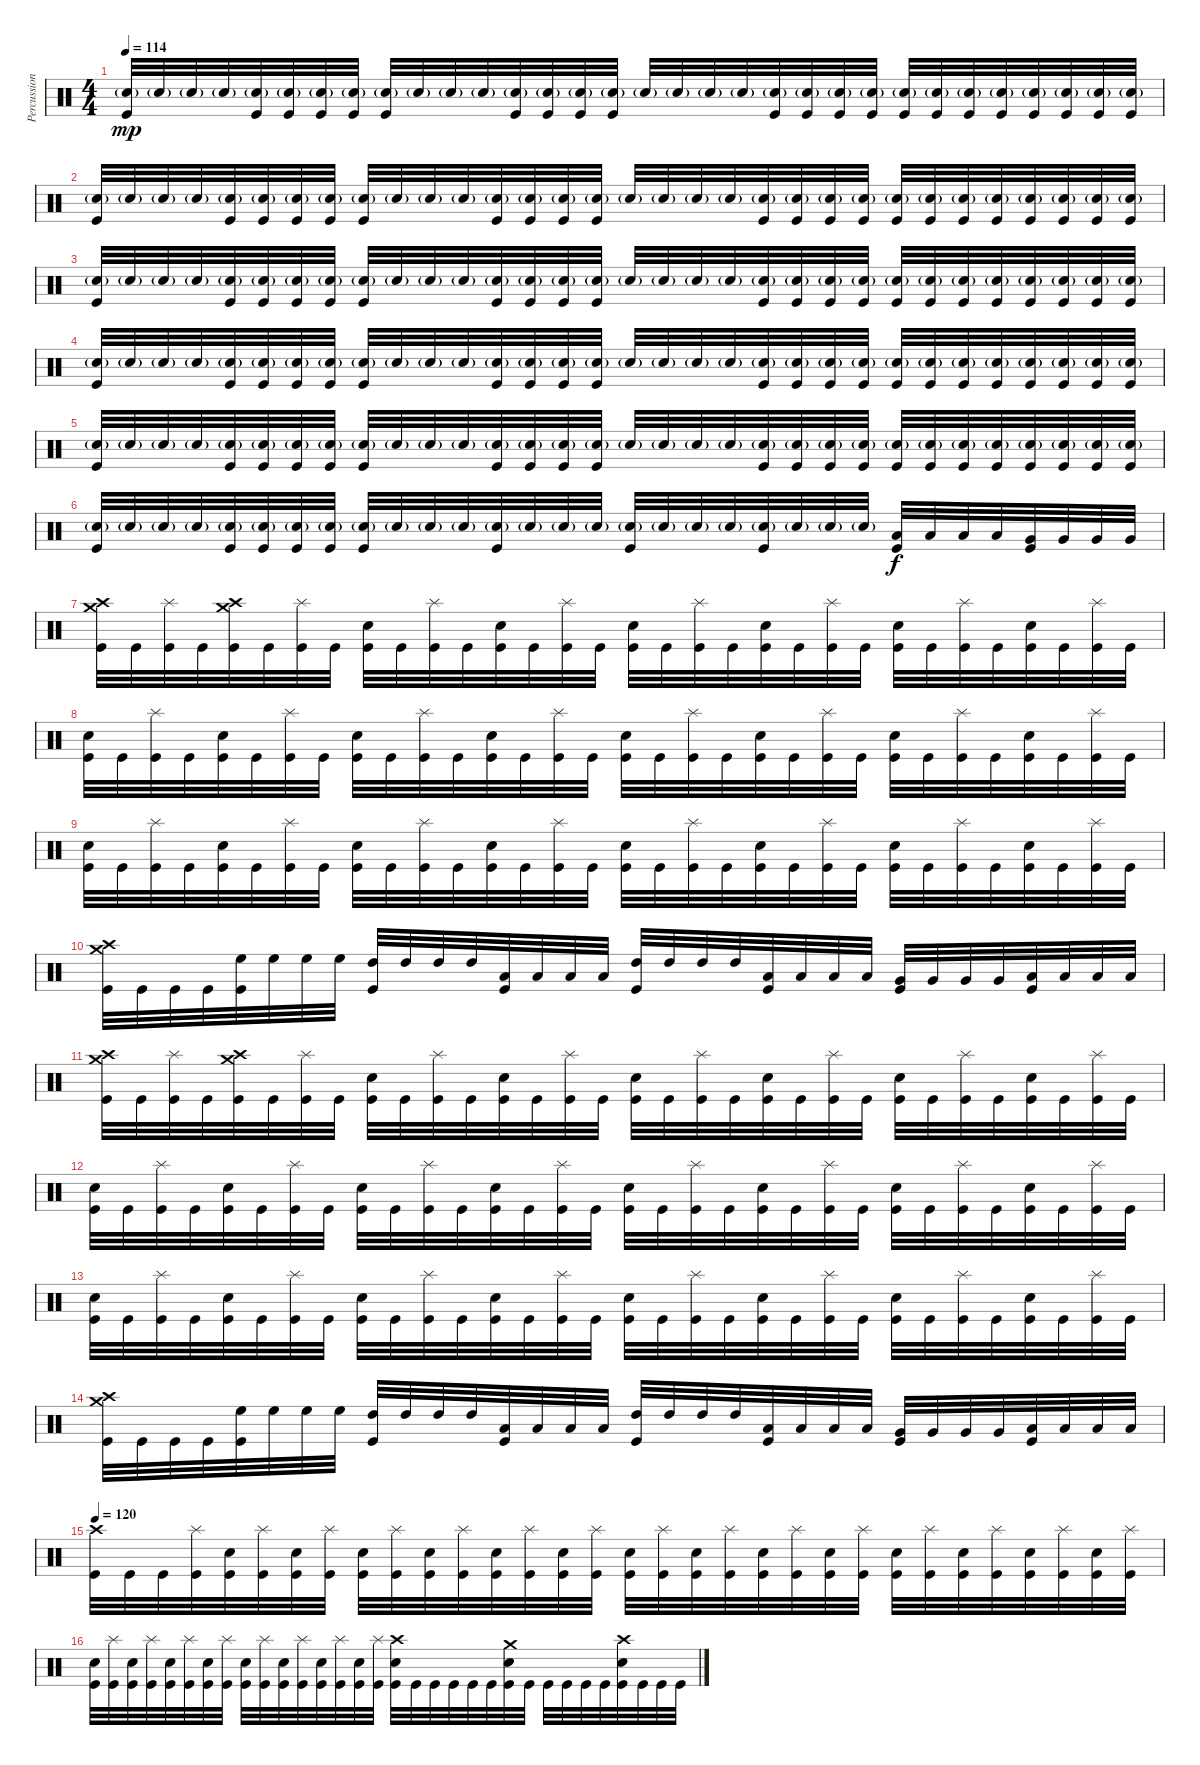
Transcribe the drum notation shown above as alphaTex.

\track ("Percussion" "Percussion") {instrument percussion}
\staff {score}
\articulation defaults
\ts (4 4)
\tempo 114
\clef neutral
\ks c
("Electric Snare (hit)"{g} "Kick (hit)").32{dy mp} "Electric Snare (hit)"{g}.32 "Electric Snare (hit)"{g}.32 "Electric Snare (hit)"{g}.32 ("Electric Snare (hit)"{g} "Kick (hit)").32 ("Electric Snare (hit)"{g} "Kick (hit)").32 ("Electric Snare (hit)"{g} "Kick (hit)").32 ("Electric Snare (hit)"{g} "Kick (hit)").32 ("Electric Snare (hit)"{g} "Kick (hit)").32 "Electric Snare (hit)"{g}.32 "Electric Snare (hit)"{g}.32 "Electric Snare (hit)"{g}.32 ("Electric Snare (hit)"{g} "Kick (hit)").32 ("Electric Snare (hit)"{g} "Kick (hit)").32 ("Electric Snare (hit)"{g} "Kick (hit)").32 ("Electric Snare (hit)"{g} "Kick (hit)").32 "Electric Snare (hit)"{g}.32 "Electric Snare (hit)"{g}.32 "Electric Snare (hit)"{g}.32 "Electric Snare (hit)"{g}.32 ("Electric Snare (hit)"{g} "Kick (hit)").32 ("Electric Snare (hit)"{g} "Kick (hit)").32 ("Electric Snare (hit)"{g} "Kick (hit)").32 ("Electric Snare (hit)"{g} "Kick (hit)").32 ("Electric Snare (hit)"{g} "Kick (hit)").32 ("Electric Snare (hit)"{g} "Kick (hit)").32 ("Electric Snare (hit)"{g} "Kick (hit)").32 ("Electric Snare (hit)"{g} "Kick (hit)").32 ("Electric Snare (hit)"{g} "Kick (hit)").32 ("Electric Snare (hit)"{g} "Kick (hit)").32 ("Electric Snare (hit)"{g} "Kick (hit)").32 ("Electric Snare (hit)"{g} "Kick (hit)").32 |
("Electric Snare (hit)"{g} "Kick (hit)").32 "Electric Snare (hit)"{g}.32 "Electric Snare (hit)"{g}.32 "Electric Snare (hit)"{g}.32 ("Electric Snare (hit)"{g} "Kick (hit)").32 ("Electric Snare (hit)"{g} "Kick (hit)").32 ("Electric Snare (hit)"{g} "Kick (hit)").32 ("Electric Snare (hit)"{g} "Kick (hit)").32 ("Electric Snare (hit)"{g} "Kick (hit)").32 "Electric Snare (hit)"{g}.32 "Electric Snare (hit)"{g}.32 "Electric Snare (hit)"{g}.32 ("Electric Snare (hit)"{g} "Kick (hit)").32 ("Electric Snare (hit)"{g} "Kick (hit)").32 ("Electric Snare (hit)"{g} "Kick (hit)").32 ("Electric Snare (hit)"{g} "Kick (hit)").32 "Electric Snare (hit)"{g}.32 "Electric Snare (hit)"{g}.32 "Electric Snare (hit)"{g}.32 "Electric Snare (hit)"{g}.32 ("Electric Snare (hit)"{g} "Kick (hit)").32 ("Electric Snare (hit)"{g} "Kick (hit)").32 ("Electric Snare (hit)"{g} "Kick (hit)").32 ("Electric Snare (hit)"{g} "Kick (hit)").32 ("Electric Snare (hit)"{g} "Kick (hit)").32 ("Electric Snare (hit)"{g} "Kick (hit)").32 ("Electric Snare (hit)"{g} "Kick (hit)").32 ("Electric Snare (hit)"{g} "Kick (hit)").32 ("Electric Snare (hit)"{g} "Kick (hit)").32 ("Electric Snare (hit)"{g} "Kick (hit)").32 ("Electric Snare (hit)"{g} "Kick (hit)").32 ("Electric Snare (hit)"{g} "Kick (hit)").32 |
("Electric Snare (hit)"{g} "Kick (hit)").32 "Electric Snare (hit)"{g}.32 "Electric Snare (hit)"{g}.32 "Electric Snare (hit)"{g}.32 ("Electric Snare (hit)"{g} "Kick (hit)").32 ("Electric Snare (hit)"{g} "Kick (hit)").32 ("Electric Snare (hit)"{g} "Kick (hit)").32 ("Electric Snare (hit)"{g} "Kick (hit)").32 ("Electric Snare (hit)"{g} "Kick (hit)").32 "Electric Snare (hit)"{g}.32 "Electric Snare (hit)"{g}.32 "Electric Snare (hit)"{g}.32 ("Electric Snare (hit)"{g} "Kick (hit)").32 ("Electric Snare (hit)"{g} "Kick (hit)").32 ("Electric Snare (hit)"{g} "Kick (hit)").32 ("Electric Snare (hit)"{g} "Kick (hit)").32 "Electric Snare (hit)"{g}.32 "Electric Snare (hit)"{g}.32 "Electric Snare (hit)"{g}.32 "Electric Snare (hit)"{g}.32 ("Electric Snare (hit)"{g} "Kick (hit)").32 ("Electric Snare (hit)"{g} "Kick (hit)").32 ("Electric Snare (hit)"{g} "Kick (hit)").32 ("Electric Snare (hit)"{g} "Kick (hit)").32 ("Electric Snare (hit)"{g} "Kick (hit)").32 ("Electric Snare (hit)"{g} "Kick (hit)").32 ("Electric Snare (hit)"{g} "Kick (hit)").32 ("Electric Snare (hit)"{g} "Kick (hit)").32 ("Electric Snare (hit)"{g} "Kick (hit)").32 ("Electric Snare (hit)"{g} "Kick (hit)").32 ("Electric Snare (hit)"{g} "Kick (hit)").32 ("Electric Snare (hit)"{g} "Kick (hit)").32 |
("Electric Snare (hit)"{g} "Kick (hit)").32 "Electric Snare (hit)"{g}.32 "Electric Snare (hit)"{g}.32 "Electric Snare (hit)"{g}.32 ("Electric Snare (hit)"{g} "Kick (hit)").32 ("Electric Snare (hit)"{g} "Kick (hit)").32 ("Electric Snare (hit)"{g} "Kick (hit)").32 ("Electric Snare (hit)"{g} "Kick (hit)").32 ("Electric Snare (hit)"{g} "Kick (hit)").32 "Electric Snare (hit)"{g}.32 "Electric Snare (hit)"{g}.32 "Electric Snare (hit)"{g}.32 ("Electric Snare (hit)"{g} "Kick (hit)").32 ("Electric Snare (hit)"{g} "Kick (hit)").32 ("Electric Snare (hit)"{g} "Kick (hit)").32 ("Electric Snare (hit)"{g} "Kick (hit)").32 "Electric Snare (hit)"{g}.32 "Electric Snare (hit)"{g}.32 "Electric Snare (hit)"{g}.32 "Electric Snare (hit)"{g}.32 ("Electric Snare (hit)"{g} "Kick (hit)").32 ("Electric Snare (hit)"{g} "Kick (hit)").32 ("Electric Snare (hit)"{g} "Kick (hit)").32 ("Electric Snare (hit)"{g} "Kick (hit)").32 ("Electric Snare (hit)"{g} "Kick (hit)").32 ("Electric Snare (hit)"{g} "Kick (hit)").32 ("Electric Snare (hit)"{g} "Kick (hit)").32 ("Electric Snare (hit)"{g} "Kick (hit)").32 ("Electric Snare (hit)"{g} "Kick (hit)").32 ("Electric Snare (hit)"{g} "Kick (hit)").32 ("Electric Snare (hit)"{g} "Kick (hit)").32 ("Electric Snare (hit)"{g} "Kick (hit)").32 |
("Electric Snare (hit)"{g} "Kick (hit)").32 "Electric Snare (hit)"{g}.32 "Electric Snare (hit)"{g}.32 "Electric Snare (hit)"{g}.32 ("Electric Snare (hit)"{g} "Kick (hit)").32 ("Electric Snare (hit)"{g} "Kick (hit)").32 ("Electric Snare (hit)"{g} "Kick (hit)").32 ("Electric Snare (hit)"{g} "Kick (hit)").32 ("Electric Snare (hit)"{g} "Kick (hit)").32 "Electric Snare (hit)"{g}.32 "Electric Snare (hit)"{g}.32 "Electric Snare (hit)"{g}.32 ("Electric Snare (hit)"{g} "Kick (hit)").32 ("Electric Snare (hit)"{g} "Kick (hit)").32 ("Electric Snare (hit)"{g} "Kick (hit)").32 ("Electric Snare (hit)"{g} "Kick (hit)").32 "Electric Snare (hit)"{g}.32 "Electric Snare (hit)"{g}.32 "Electric Snare (hit)"{g}.32 "Electric Snare (hit)"{g}.32 ("Electric Snare (hit)"{g} "Kick (hit)").32 ("Electric Snare (hit)"{g} "Kick (hit)").32 ("Electric Snare (hit)"{g} "Kick (hit)").32 ("Electric Snare (hit)"{g} "Kick (hit)").32 ("Electric Snare (hit)"{g} "Kick (hit)").32 ("Electric Snare (hit)"{g} "Kick (hit)").32 ("Electric Snare (hit)"{g} "Kick (hit)").32 ("Electric Snare (hit)"{g} "Kick (hit)").32 ("Electric Snare (hit)"{g} "Kick (hit)").32 ("Electric Snare (hit)"{g} "Kick (hit)").32 ("Electric Snare (hit)"{g} "Kick (hit)").32 ("Electric Snare (hit)"{g} "Kick (hit)").32 |
("Electric Snare (hit)"{g} "Kick (hit)").32 "Electric Snare (hit)"{g}.32 "Electric Snare (hit)"{g}.32 "Electric Snare (hit)"{g}.32 ("Electric Snare (hit)"{g} "Kick (hit)").32 ("Electric Snare (hit)"{g} "Kick (hit)").32 ("Electric Snare (hit)"{g} "Kick (hit)").32 ("Electric Snare (hit)"{g} "Kick (hit)").32 ("Electric Snare (hit)"{g} "Kick (hit)").32 "Electric Snare (hit)"{g}.32 "Electric Snare (hit)"{g}.32 "Electric Snare (hit)"{g}.32 ("Electric Snare (hit)"{g} "Kick (hit)").32 "Electric Snare (hit)"{g}.32 "Electric Snare (hit)"{g}.32 "Electric Snare (hit)"{g}.32 ("Electric Snare (hit)"{g} "Kick (hit)").32 "Electric Snare (hit)"{g}.32 "Electric Snare (hit)"{g}.32 "Electric Snare (hit)"{g}.32 ("Electric Snare (hit)"{g} "Kick (hit)").32 "Electric Snare (hit)"{g}.32 "Electric Snare (hit)"{g}.32 "Electric Snare (hit)"{g}.32 ("Low Tom (hit)" "Kick (hit)").32{dy f} "Low Tom (hit)".32 "Low Tom (hit)".32 "Low Tom (hit)".32 ("Very Low Tom (hit)" "Kick (hit)").32 "Very Low Tom (hit)".32 "Very Low Tom (hit)".32 "Very Low Tom (hit)".32 |
("Crash high (hit)" "Crash medium (hit)" "Kick (hit)").32 "Kick (hit)".32 ("Splash (hit)" "Kick (hit)").32 "Kick (hit)".32 ("Crash high (hit)" "Crash medium (hit)" "Kick (hit)").32 "Kick (hit)".32 ("Splash (hit)" "Kick (hit)").32 "Kick (hit)".32 ("Electric Snare (hit)" "Kick (hit)").32 "Kick (hit)".32 ("Splash (hit)" "Kick (hit)").32 "Kick (hit)".32 ("Electric Snare (hit)" "Kick (hit)").32 "Kick (hit)".32 ("Splash (hit)" "Kick (hit)").32 "Kick (hit)".32 ("Electric Snare (hit)" "Kick (hit)").32 "Kick (hit)".32 ("Splash (hit)" "Kick (hit)").32 "Kick (hit)".32 ("Electric Snare (hit)" "Kick (hit)").32 "Kick (hit)".32 ("Splash (hit)" "Kick (hit)").32 "Kick (hit)".32 ("Electric Snare (hit)" "Kick (hit)").32 "Kick (hit)".32 ("Splash (hit)" "Kick (hit)").32 "Kick (hit)".32 ("Electric Snare (hit)" "Kick (hit)").32 "Kick (hit)".32 ("Splash (hit)" "Kick (hit)").32 "Kick (hit)".32 |
("Electric Snare (hit)" "Kick (hit)").32 "Kick (hit)".32 ("Splash (hit)" "Kick (hit)").32 "Kick (hit)".32 ("Electric Snare (hit)" "Kick (hit)").32 "Kick (hit)".32 ("Splash (hit)" "Kick (hit)").32 "Kick (hit)".32 ("Electric Snare (hit)" "Kick (hit)").32 "Kick (hit)".32 ("Splash (hit)" "Kick (hit)").32 "Kick (hit)".32 ("Electric Snare (hit)" "Kick (hit)").32 "Kick (hit)".32 ("Splash (hit)" "Kick (hit)").32 "Kick (hit)".32 ("Electric Snare (hit)" "Kick (hit)").32 "Kick (hit)".32 ("Splash (hit)" "Kick (hit)").32 "Kick (hit)".32 ("Electric Snare (hit)" "Kick (hit)").32 "Kick (hit)".32 ("Splash (hit)" "Kick (hit)").32 "Kick (hit)".32 ("Electric Snare (hit)" "Kick (hit)").32 "Kick (hit)".32 ("Splash (hit)" "Kick (hit)").32 "Kick (hit)".32 ("Electric Snare (hit)" "Kick (hit)").32 "Kick (hit)".32 ("Splash (hit)" "Kick (hit)").32 "Kick (hit)".32 |
("Electric Snare (hit)" "Kick (hit)").32 "Kick (hit)".32 ("Splash (hit)" "Kick (hit)").32 "Kick (hit)".32 ("Electric Snare (hit)" "Kick (hit)").32 "Kick (hit)".32 ("Splash (hit)" "Kick (hit)").32 "Kick (hit)".32 ("Electric Snare (hit)" "Kick (hit)").32 "Kick (hit)".32 ("Splash (hit)" "Kick (hit)").32 "Kick (hit)".32 ("Electric Snare (hit)" "Kick (hit)").32 "Kick (hit)".32 ("Splash (hit)" "Kick (hit)").32 "Kick (hit)".32 ("Electric Snare (hit)" "Kick (hit)").32 "Kick (hit)".32 ("Splash (hit)" "Kick (hit)").32 "Kick (hit)".32 ("Electric Snare (hit)" "Kick (hit)").32 "Kick (hit)".32 ("Splash (hit)" "Kick (hit)").32 "Kick (hit)".32 ("Electric Snare (hit)" "Kick (hit)").32 "Kick (hit)".32 ("Splash (hit)" "Kick (hit)").32 "Kick (hit)".32 ("Electric Snare (hit)" "Kick (hit)").32 "Kick (hit)".32 ("Splash (hit)" "Kick (hit)").32 "Kick (hit)".32 |
("Crash medium (hit)" "Crash high (hit)" "Kick (hit)").32 "Kick (hit)".32 "Kick (hit)".32 "Kick (hit)".32 ("High Floor Tom (hit)" "Kick (hit)").32 "High Floor Tom (hit)".32 "High Floor Tom (hit)".32 "High Floor Tom (hit)".32 ("High Tom (hit)" "Kick (hit)").32 "High Tom (hit)".32 "High Tom (hit)".32 "High Tom (hit)".32 ("Low Tom (hit)" "Kick (hit)").32 "Low Tom (hit)".32 "Low Tom (hit)".32 "Low Tom (hit)".32 ("High Tom (hit)" "Kick (hit)").32 "High Tom (hit)".32 "High Tom (hit)".32 "High Tom (hit)".32 ("Low Tom (hit)" "Kick (hit)").32 "Low Tom (hit)".32 "Low Tom (hit)".32 "Low Tom (hit)".32 ("Very Low Tom (hit)" "Kick (hit)").32 "Very Low Tom (hit)".32 "Very Low Tom (hit)".32 "Very Low Tom (hit)".32 ("Low Floor Tom (hit)" "Kick (hit)").32 "Low Floor Tom (hit)".32 "Low Floor Tom (hit)".32 "Low Floor Tom (hit)".32 |
("Crash high (hit)" "Crash medium (hit)" "Kick (hit)").32 "Kick (hit)".32 ("Splash (hit)" "Kick (hit)").32 "Kick (hit)".32 ("Crash high (hit)" "Crash medium (hit)" "Kick (hit)").32 "Kick (hit)".32 ("Splash (hit)" "Kick (hit)").32 "Kick (hit)".32 ("Electric Snare (hit)" "Kick (hit)").32 "Kick (hit)".32 ("Splash (hit)" "Kick (hit)").32 "Kick (hit)".32 ("Electric Snare (hit)" "Kick (hit)").32 "Kick (hit)".32 ("Splash (hit)" "Kick (hit)").32 "Kick (hit)".32 ("Electric Snare (hit)" "Kick (hit)").32 "Kick (hit)".32 ("Splash (hit)" "Kick (hit)").32 "Kick (hit)".32 ("Electric Snare (hit)" "Kick (hit)").32 "Kick (hit)".32 ("Splash (hit)" "Kick (hit)").32 "Kick (hit)".32 ("Electric Snare (hit)" "Kick (hit)").32 "Kick (hit)".32 ("Splash (hit)" "Kick (hit)").32 "Kick (hit)".32 ("Electric Snare (hit)" "Kick (hit)").32 "Kick (hit)".32 ("Splash (hit)" "Kick (hit)").32 "Kick (hit)".32 |
("Electric Snare (hit)" "Kick (hit)").32 "Kick (hit)".32 ("Splash (hit)" "Kick (hit)").32 "Kick (hit)".32 ("Electric Snare (hit)" "Kick (hit)").32 "Kick (hit)".32 ("Splash (hit)" "Kick (hit)").32 "Kick (hit)".32 ("Electric Snare (hit)" "Kick (hit)").32 "Kick (hit)".32 ("Splash (hit)" "Kick (hit)").32 "Kick (hit)".32 ("Electric Snare (hit)" "Kick (hit)").32 "Kick (hit)".32 ("Splash (hit)" "Kick (hit)").32 "Kick (hit)".32 ("Electric Snare (hit)" "Kick (hit)").32 "Kick (hit)".32 ("Splash (hit)" "Kick (hit)").32 "Kick (hit)".32 ("Electric Snare (hit)" "Kick (hit)").32 "Kick (hit)".32 ("Splash (hit)" "Kick (hit)").32 "Kick (hit)".32 ("Electric Snare (hit)" "Kick (hit)").32 "Kick (hit)".32 ("Splash (hit)" "Kick (hit)").32 "Kick (hit)".32 ("Electric Snare (hit)" "Kick (hit)").32 "Kick (hit)".32 ("Splash (hit)" "Kick (hit)").32 "Kick (hit)".32 |
("Electric Snare (hit)" "Kick (hit)").32 "Kick (hit)".32 ("Splash (hit)" "Kick (hit)").32 "Kick (hit)".32 ("Electric Snare (hit)" "Kick (hit)").32 "Kick (hit)".32 ("Splash (hit)" "Kick (hit)").32 "Kick (hit)".32 ("Electric Snare (hit)" "Kick (hit)").32 "Kick (hit)".32 ("Splash (hit)" "Kick (hit)").32 "Kick (hit)".32 ("Electric Snare (hit)" "Kick (hit)").32 "Kick (hit)".32 ("Splash (hit)" "Kick (hit)").32 "Kick (hit)".32 ("Electric Snare (hit)" "Kick (hit)").32 "Kick (hit)".32 ("Splash (hit)" "Kick (hit)").32 "Kick (hit)".32 ("Electric Snare (hit)" "Kick (hit)").32 "Kick (hit)".32 ("Splash (hit)" "Kick (hit)").32 "Kick (hit)".32 ("Electric Snare (hit)" "Kick (hit)").32 "Kick (hit)".32 ("Splash (hit)" "Kick (hit)").32 "Kick (hit)".32 ("Electric Snare (hit)" "Kick (hit)").32 "Kick (hit)".32 ("Splash (hit)" "Kick (hit)").32 "Kick (hit)".32 |
("Crash medium (hit)" "Crash high (hit)" "Kick (hit)").32 "Kick (hit)".32 "Kick (hit)".32 "Kick (hit)".32 ("High Floor Tom (hit)" "Kick (hit)").32 "High Floor Tom (hit)".32 "High Floor Tom (hit)".32 "High Floor Tom (hit)".32 ("High Tom (hit)" "Kick (hit)").32 "High Tom (hit)".32 "High Tom (hit)".32 "High Tom (hit)".32 ("Low Tom (hit)" "Kick (hit)").32 "Low Tom (hit)".32 "Low Tom (hit)".32 "Low Tom (hit)".32 ("High Tom (hit)" "Kick (hit)").32 "High Tom (hit)".32 "High Tom (hit)".32 "High Tom (hit)".32 ("Low Tom (hit)" "Kick (hit)").32 "Low Tom (hit)".32 "Low Tom (hit)".32 "Low Tom (hit)".32 ("Very Low Tom (hit)" "Kick (hit)").32 "Very Low Tom (hit)".32 "Very Low Tom (hit)".32 "Very Low Tom (hit)".32 ("Low Floor Tom (hit)" "Kick (hit)").32 "Low Floor Tom (hit)".32 "Low Floor Tom (hit)".32 "Low Floor Tom (hit)".32 |
\tempo 120
("Crash high (hit)" "Kick (hit)").32{volume 14} "Kick (hit)".32 "Kick (hit)".32 ("Splash (hit)" "Kick (hit)").32 ("Electric Snare (hit)" "Kick (hit)").32 ("Splash (hit)" "Kick (hit)").32 ("Electric Snare (hit)" "Kick (hit)").32 ("Splash (hit)" "Kick (hit)").32 ("Electric Snare (hit)" "Kick (hit)").32 ("Splash (hit)" "Kick (hit)").32 ("Electric Snare (hit)" "Kick (hit)").32 ("Splash (hit)" "Kick (hit)").32 ("Electric Snare (hit)" "Kick (hit)").32 ("Splash (hit)" "Kick (hit)").32 ("Electric Snare (hit)" "Kick (hit)").32 ("Splash (hit)" "Kick (hit)").32 ("Electric Snare (hit)" "Kick (hit)").32 ("Splash (hit)" "Kick (hit)").32 ("Electric Snare (hit)" "Kick (hit)").32 ("Splash (hit)" "Kick (hit)").32 ("Electric Snare (hit)" "Kick (hit)").32 ("Splash (hit)" "Kick (hit)").32 ("Electric Snare (hit)" "Kick (hit)").32 ("Splash (hit)" "Kick (hit)").32 ("Electric Snare (hit)" "Kick (hit)").32 ("Splash (hit)" "Kick (hit)").32 ("Electric Snare (hit)" "Kick (hit)").32 ("Splash (hit)" "Kick (hit)").32 ("Electric Snare (hit)" "Kick (hit)").32 ("Splash (hit)" "Kick (hit)").32 ("Electric Snare (hit)" "Kick (hit)").32 ("Splash (hit)" "Kick (hit)").32 |
("Electric Snare (hit)" "Kick (hit)").32 ("Splash (hit)" "Kick (hit)").32 ("Electric Snare (hit)" "Kick (hit)").32 ("Splash (hit)" "Kick (hit)").32 ("Electric Snare (hit)" "Kick (hit)").32 ("Splash (hit)" "Kick (hit)").32 ("Electric Snare (hit)" "Kick (hit)").32 ("Splash (hit)" "Kick (hit)").32 ("Electric Snare (hit)" "Kick (hit)").32 ("Splash (hit)" "Kick (hit)").32 ("Electric Snare (hit)" "Kick (hit)").32 ("Splash (hit)" "Kick (hit)").32 ("Electric Snare (hit)" "Kick (hit)").32 ("Splash (hit)" "Kick (hit)").32 ("Electric Snare (hit)" "Kick (hit)").32 ("Splash (hit)" "Kick (hit)").32 ("Crash high (hit)" "Electric Snare (hit)" "Kick (hit)").32 "Kick (hit)".32 "Kick (hit)".32 "Kick (hit)".32 "Kick (hit)".32 "Kick (hit)".32 ("Crash medium (hit)" "Electric Snare (hit)" "Kick (hit)").32 "Kick (hit)".32 "Kick (hit)".32 "Kick (hit)".32 "Kick (hit)".32 "Kick (hit)".32 ("Crash high (hit)" "Electric Snare (hit)" "Kick (hit)").32 "Kick (hit)".32 "Kick (hit)".32 "Kick (hit)".32
